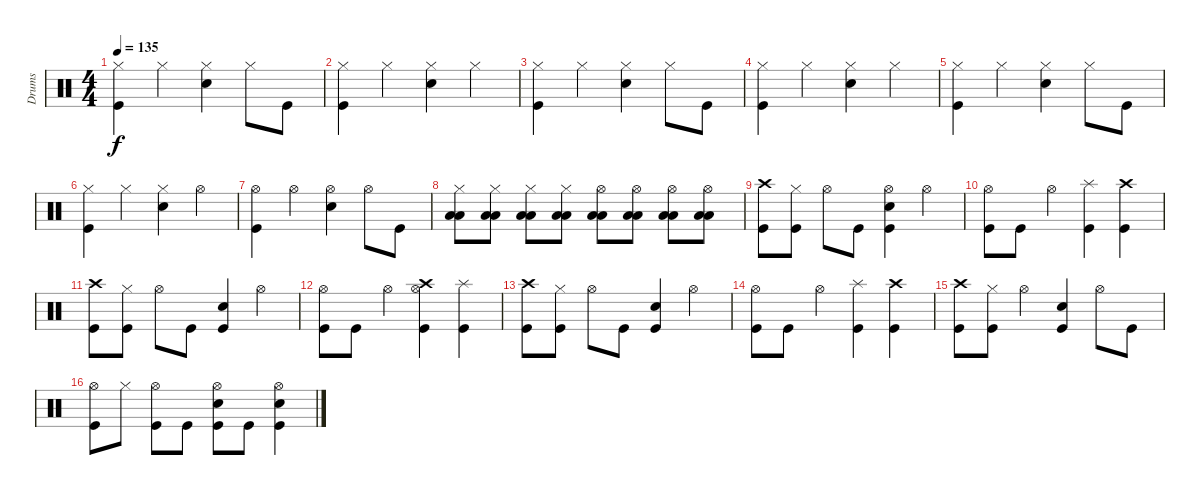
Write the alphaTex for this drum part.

\track ("Drums" "Drums") {instrument percussion}
\staff {score}
\articulation defaults
\ts (4 4)
\tempo 135
\clef neutral
\ks c
("Hi-Hat (closed)" "Kick (hit)").4{dy f} "Hi-Hat (closed)".4 ("Hi-Hat (closed)" "Snare (hit) 2").4 "Hi-Hat (closed)".8 "Kick (hit)".8 |
("Hi-Hat (closed)" "Kick (hit)").4 "Hi-Hat (closed)".4 ("Hi-Hat (closed)" "Snare (hit) 2").4 "Hi-Hat (closed)".4 |
("Hi-Hat (closed)" "Kick (hit)").4 "Hi-Hat (closed)".4 ("Hi-Hat (closed)" "Snare (hit) 2").4 "Hi-Hat (closed)".8 "Kick (hit)".8 |
("Hi-Hat (closed)" "Kick (hit)").4 "Hi-Hat (closed)".4 ("Hi-Hat (closed)" "Snare (hit) 2").4 "Hi-Hat (closed)".4 |
("Hi-Hat (closed)" "Kick (hit)").4 "Hi-Hat (closed)".4 ("Hi-Hat (closed)" "Snare (hit) 2").4 "Hi-Hat (closed)".8 "Kick (hit)".8 |
("Hi-Hat (closed)" "Kick (hit)").4 "Hi-Hat (closed)".4 ("Hi-Hat (closed)" "Snare (hit) 2").4 "Hi-Hat (open)".4 |
("Hi-Hat (open)" "Kick (hit)").4 "Hi-Hat (open)".4 ("Hi-Hat (open)" "Snare (hit) 2").4 "Hi-Hat (open)".8 "Kick (hit)".8 |
("Hi-Hat (closed)" "Low Floor Tom (hit)" "Low Floor Tom (hit)").8 ("Hi-Hat (closed)" "Low Floor Tom (hit)" "Low Floor Tom (hit)").8 ("Hi-Hat (closed)" "Low Floor Tom (hit)" "Low Floor Tom (hit)").8 ("Hi-Hat (closed)" "Low Floor Tom (hit)" "Low Floor Tom (hit)").8 ("Hi-Hat (open)" "Low Floor Tom (hit)" "Low Floor Tom (hit)").8 ("Hi-Hat (open)" "Low Floor Tom (hit)" "Low Floor Tom (hit)").8 ("Hi-Hat (open)" "Low Floor Tom (hit)" "Low Floor Tom (hit)").8 ("Hi-Hat (open)" "Low Floor Tom (hit)" "Low Floor Tom (hit)").8 |
("Crash high (hit)" "Kick (hit)").8 ("Hi-Hat (closed)" "Kick (hit)").8 "Hi-Hat (open)".8 "Kick (hit)".8 ("Hi-Hat (open)" "Snare (hit) 2" "Kick (hit)").4 "Hi-Hat (open)".4 |
("Hi-Hat (open)" "Kick (hit)").8 "Kick (hit)".8 "Hi-Hat (open)".4 ("Splash (hit)" "Kick (hit)").4 ("Crash high (hit)" "Kick (hit)").4 |
("Crash high (hit)" "Kick (hit)").8 ("Hi-Hat (closed)" "Kick (hit)").8 "Hi-Hat (open)".8 "Kick (hit)".8 ("Snare (hit) 2" "Kick (hit)").4 "Hi-Hat (open)".4 |
("Hi-Hat (open)" "Kick (hit)").8 "Kick (hit)".8 "Hi-Hat (open)".4 ("Crash high (hit)" "Hi-Hat (open)" "Kick (hit)").4 ("Splash (hit)" "Kick (hit)").4 |
("Crash high (hit)" "Kick (hit)").8 ("Hi-Hat (closed)" "Kick (hit)").8 "Hi-Hat (open)".8 "Kick (hit)".8 ("Snare (hit) 2" "Kick (hit)").4 "Hi-Hat (open)".4 |
("Hi-Hat (open)" "Kick (hit)").8 "Kick (hit)".8 "Hi-Hat (open)".4 ("Splash (hit)" "Kick (hit)").4 ("Crash high (hit)" "Kick (hit)").4 |
("Crash high (hit)" "Kick (hit)").8 ("Hi-Hat (closed)" "Kick (hit)").8 "Hi-Hat (open)".4 ("Snare (hit) 2" "Kick (hit)").4 "Hi-Hat (open)".8 "Kick (hit)".8 |
("Hi-Hat (open)" "Kick (hit)").8 "Hi-Hat (closed)".8 ("Hi-Hat (open)" "Kick (hit)").8 "Kick (hit)".8 ("Hi-Hat (open)" "Snare (hit) 2" "Kick (hit)").8 "Kick (hit)".8 ("Hi-Hat (open)" "Snare (hit) 2" "Kick (hit)").4
